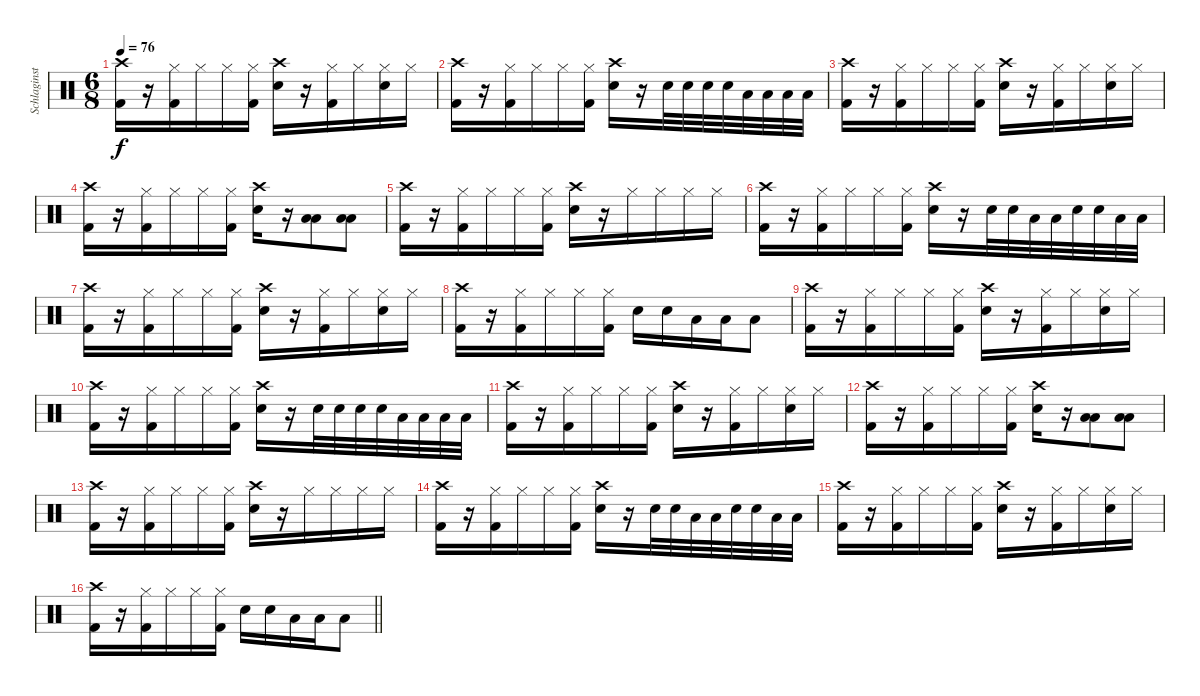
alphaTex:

\track ("Schlaginstrumente - Auswahl" "Schlaginst") {instrument percussion}
\staff {score}
\articulation defaults
\ts (6 8)
\tempo 76
\clef neutral
\ks c
("Crash high (hit)" "Kick (hit) 2").16{dy f} r.16 ("Hi-Hat (closed)" "Kick (hit) 2").16 "Hi-Hat (closed)".16 "Hi-Hat (closed)".16 ("Hi-Hat (closed)" "Kick (hit) 2").16 ("Crash high (hit)" "Snare (hit) 2").16 r.16 ("Hi-Hat (closed)" "Kick (hit) 2").16 "Hi-Hat (closed)".16 ("Hi-Hat (closed)" "Snare (hit) 2").16 "Hi-Hat (closed)".16 |
("Crash high (hit)" "Kick (hit) 2").16 r.16 ("Hi-Hat (closed)" "Kick (hit) 2").16 "Hi-Hat (closed)".16 "Hi-Hat (closed)".16 ("Hi-Hat (closed)" "Kick (hit) 2").16 ("Crash high (hit)" "Snare (hit) 2").16 r.16 "Snare (hit) 2".32 "Snare (hit) 2".32 "Snare (hit) 2".32 "Snare (hit) 2".32 "Low Tom (hit)".32 "Low Tom (hit)".32 "Low Tom (hit)".32 "Low Tom (hit)".32 |
("Crash high (hit)" "Kick (hit) 2").16 r.16 ("Hi-Hat (closed)" "Kick (hit) 2").16 "Hi-Hat (closed)".16 "Hi-Hat (closed)".16 ("Hi-Hat (closed)" "Kick (hit) 2").16 ("Crash high (hit)" "Snare (hit) 2").16 r.16 ("Hi-Hat (closed)" "Kick (hit) 2").16 "Hi-Hat (closed)".16 ("Hi-Hat (closed)" "Snare (hit) 2").16 "Hi-Hat (closed)".16 |
("Crash high (hit)" "Kick (hit) 2").16 r.16 ("Hi-Hat (closed)" "Kick (hit) 2").16 "Hi-Hat (closed)".16 "Hi-Hat (closed)".16 ("Hi-Hat (closed)" "Kick (hit) 2").16 ("Crash high (hit)" "Snare (hit) 2").16 r.16 ("Low Tom (hit)" "Low Tom (hit)").8{bd 240} ("Low Floor Tom (hit)" "Low Floor Tom (hit)").8{bd 240} |
("Crash high (hit)" "Kick (hit) 2").16 r.16 ("Hi-Hat (closed)" "Kick (hit) 2").16 "Hi-Hat (closed)".16 "Hi-Hat (closed)".16 ("Hi-Hat (closed)" "Kick (hit) 2").16 ("Crash high (hit)" "Snare (hit) 2").16 r.16 "Hi-Hat (closed)".16 "Hi-Hat (closed)".16 "Hi-Hat (closed)".16 "Hi-Hat (closed)".16 |
("Crash high (hit)" "Kick (hit) 2").16 r.16 ("Hi-Hat (closed)" "Kick (hit) 2").16 "Hi-Hat (closed)".16 "Hi-Hat (closed)".16 ("Hi-Hat (closed)" "Kick (hit) 2").16 ("Crash high (hit)" "Snare (hit) 2").16 r.16 "Snare (hit) 2".32 "Snare (hit) 2".32 "Low Tom (hit)".32 "Low Tom (hit)".32 "Snare (hit) 2".32 "Snare (hit) 2".32 "Low Tom (hit)".32 "Low Tom (hit)".32 |
("Crash high (hit)" "Kick (hit) 2").16 r.16 ("Hi-Hat (closed)" "Kick (hit) 2").16 "Hi-Hat (closed)".16 "Hi-Hat (closed)".16 ("Hi-Hat (closed)" "Kick (hit) 2").16 ("Crash high (hit)" "Snare (hit) 2").16 r.16 ("Hi-Hat (closed)" "Kick (hit) 2").16 "Hi-Hat (closed)".16 ("Hi-Hat (closed)" "Snare (hit) 2").16 "Hi-Hat (closed)".16 |
("Crash high (hit)" "Kick (hit) 2").16 r.16 ("Hi-Hat (closed)" "Kick (hit) 2").16 "Hi-Hat (closed)".16 "Hi-Hat (closed)".16 ("Hi-Hat (closed)" "Kick (hit) 2").16 "Snare (hit) 2".16 "Snare (hit) 2".16 "Low Tom (hit)".16 "Low Tom (hit)".16 "Low Floor Tom (hit)".8 |
("Crash high (hit)" "Kick (hit) 2").16 r.16 ("Hi-Hat (closed)" "Kick (hit) 2").16 "Hi-Hat (closed)".16 "Hi-Hat (closed)".16 ("Hi-Hat (closed)" "Kick (hit) 2").16 ("Crash high (hit)" "Snare (hit) 2").16 r.16 ("Hi-Hat (closed)" "Kick (hit) 2").16 "Hi-Hat (closed)".16 ("Hi-Hat (closed)" "Snare (hit) 2").16 "Hi-Hat (closed)".16 |
("Crash high (hit)" "Kick (hit) 2").16 r.16 ("Hi-Hat (closed)" "Kick (hit) 2").16 "Hi-Hat (closed)".16 "Hi-Hat (closed)".16 ("Hi-Hat (closed)" "Kick (hit) 2").16 ("Crash high (hit)" "Snare (hit) 2").16 r.16 "Snare (hit) 2".32 "Snare (hit) 2".32 "Snare (hit) 2".32 "Snare (hit) 2".32 "Low Tom (hit)".32 "Low Tom (hit)".32 "Low Tom (hit)".32 "Low Tom (hit)".32 |
("Crash high (hit)" "Kick (hit) 2").16 r.16 ("Hi-Hat (closed)" "Kick (hit) 2").16 "Hi-Hat (closed)".16 "Hi-Hat (closed)".16 ("Hi-Hat (closed)" "Kick (hit) 2").16 ("Crash high (hit)" "Snare (hit) 2").16 r.16 ("Hi-Hat (closed)" "Kick (hit) 2").16 "Hi-Hat (closed)".16 ("Hi-Hat (closed)" "Snare (hit) 2").16 "Hi-Hat (closed)".16 |
("Crash high (hit)" "Kick (hit) 2").16 r.16 ("Hi-Hat (closed)" "Kick (hit) 2").16 "Hi-Hat (closed)".16 "Hi-Hat (closed)".16 ("Hi-Hat (closed)" "Kick (hit) 2").16 ("Crash high (hit)" "Snare (hit) 2").16 r.16 ("Low Tom (hit)" "Low Tom (hit)").8{bd 240} ("Low Floor Tom (hit)" "Low Floor Tom (hit)").8{bd 240} |
("Crash high (hit)" "Kick (hit) 2").16 r.16 ("Hi-Hat (closed)" "Kick (hit) 2").16 "Hi-Hat (closed)".16 "Hi-Hat (closed)".16 ("Hi-Hat (closed)" "Kick (hit) 2").16 ("Crash high (hit)" "Snare (hit) 2").16 r.16 "Hi-Hat (closed)".16 "Hi-Hat (closed)".16 "Hi-Hat (closed)".16 "Hi-Hat (closed)".16 |
("Crash high (hit)" "Kick (hit) 2").16 r.16 ("Hi-Hat (closed)" "Kick (hit) 2").16 "Hi-Hat (closed)".16 "Hi-Hat (closed)".16 ("Hi-Hat (closed)" "Kick (hit) 2").16 ("Crash high (hit)" "Snare (hit) 2").16 r.16 "Snare (hit) 2".32 "Snare (hit) 2".32 "Low Tom (hit)".32 "Low Tom (hit)".32 "Snare (hit) 2".32 "Snare (hit) 2".32 "Low Tom (hit)".32 "Low Tom (hit)".32 |
("Crash high (hit)" "Kick (hit) 2").16 r.16 ("Hi-Hat (closed)" "Kick (hit) 2").16 "Hi-Hat (closed)".16 "Hi-Hat (closed)".16 ("Hi-Hat (closed)" "Kick (hit) 2").16 ("Crash high (hit)" "Snare (hit) 2").16 r.16 ("Hi-Hat (closed)" "Kick (hit) 2").16 "Hi-Hat (closed)".16 ("Hi-Hat (closed)" "Snare (hit) 2").16 "Hi-Hat (closed)".16 |
\barLineRight lightlight
("Crash high (hit)" "Kick (hit) 2").16 r.16 ("Hi-Hat (closed)" "Kick (hit) 2").16 "Hi-Hat (closed)".16 "Hi-Hat (closed)".16 ("Hi-Hat (closed)" "Kick (hit) 2").16 "Snare (hit) 2".16 "Snare (hit) 2".16 "Low Tom (hit)".16 "Low Tom (hit)".16 "Low Floor Tom (hit)".8
